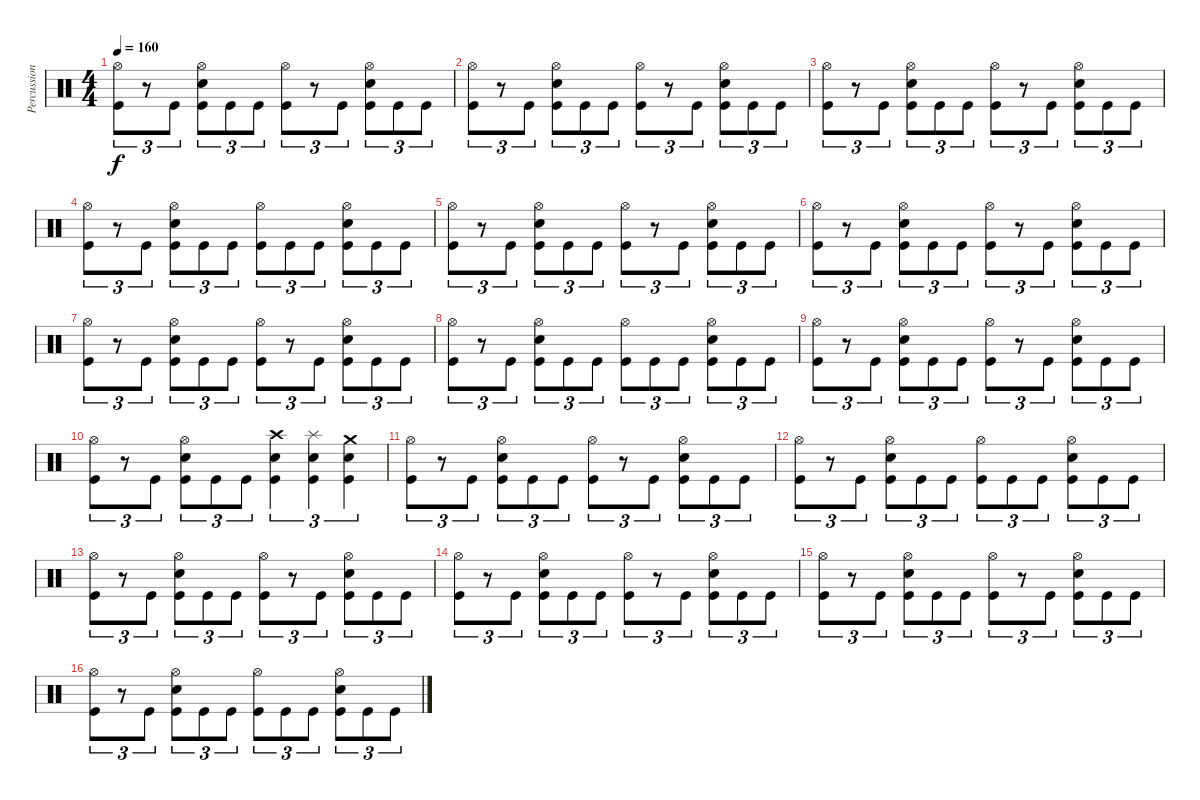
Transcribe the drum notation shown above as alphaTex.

\track ("Percussion" "Percussion") {instrument percussion}
\staff {score}
\articulation defaults
\ts (4 4)
\tempo 160
\clef neutral
\ks c
("Hi-Hat (open)" "Kick (hit)").8{tu (3 2) dy f} r.8{tu (3 2)} "Kick (hit)".8{tu (3 2)} ("Hi-Hat (open)" "Snare (hit) 2" "Kick (hit)").8{tu (3 2)} "Kick (hit)".8{tu (3 2)} "Kick (hit)".8{tu (3 2)} ("Hi-Hat (open)" "Kick (hit)").8{tu (3 2)} r.8{tu (3 2)} "Kick (hit)".8{tu (3 2)} ("Hi-Hat (open)" "Snare (hit) 2" "Kick (hit)").8{tu (3 2)} "Kick (hit)".8{tu (3 2)} "Kick (hit)".8{tu (3 2)} |
("Hi-Hat (open)" "Kick (hit)").8{tu (3 2)} r.8{tu (3 2)} "Kick (hit)".8{tu (3 2)} ("Hi-Hat (open)" "Snare (hit) 2" "Kick (hit)").8{tu (3 2)} "Kick (hit)".8{tu (3 2)} "Kick (hit)".8{tu (3 2)} ("Hi-Hat (open)" "Kick (hit)").8{tu (3 2)} r.8{tu (3 2)} "Kick (hit)".8{tu (3 2)} ("Hi-Hat (open)" "Snare (hit) 2" "Kick (hit)").8{tu (3 2)} "Kick (hit)".8{tu (3 2)} "Kick (hit)".8{tu (3 2)} |
("Hi-Hat (open)" "Kick (hit)").8{tu (3 2)} r.8{tu (3 2)} "Kick (hit)".8{tu (3 2)} ("Hi-Hat (open)" "Snare (hit) 2" "Kick (hit)").8{tu (3 2)} "Kick (hit)".8{tu (3 2)} "Kick (hit)".8{tu (3 2)} ("Hi-Hat (open)" "Kick (hit)").8{tu (3 2)} r.8{tu (3 2)} "Kick (hit)".8{tu (3 2)} ("Hi-Hat (open)" "Snare (hit) 2" "Kick (hit)").8{tu (3 2)} "Kick (hit)".8{tu (3 2)} "Kick (hit)".8{tu (3 2)} |
("Hi-Hat (open)" "Kick (hit)").8{tu (3 2)} r.8{tu (3 2)} "Kick (hit)".8{tu (3 2)} ("Hi-Hat (open)" "Snare (hit) 2" "Kick (hit)").8{tu (3 2)} "Kick (hit)".8{tu (3 2)} "Kick (hit)".8{tu (3 2)} ("Hi-Hat (open)" "Kick (hit)").8{tu (3 2)} "Kick (hit)".8{tu (3 2)} "Kick (hit)".8{tu (3 2)} ("Hi-Hat (open)" "Snare (hit) 2" "Kick (hit)").8{tu (3 2)} "Kick (hit)".8{tu (3 2)} "Kick (hit)".8{tu (3 2)} |
("Hi-Hat (open)" "Kick (hit)").8{tu (3 2)} r.8{tu (3 2)} "Kick (hit)".8{tu (3 2)} ("Hi-Hat (open)" "Snare (hit) 2" "Kick (hit)").8{tu (3 2)} "Kick (hit)".8{tu (3 2)} "Kick (hit)".8{tu (3 2)} ("Hi-Hat (open)" "Kick (hit)").8{tu (3 2)} r.8{tu (3 2)} "Kick (hit)".8{tu (3 2)} ("Hi-Hat (open)" "Snare (hit) 2" "Kick (hit)").8{tu (3 2)} "Kick (hit)".8{tu (3 2)} "Kick (hit)".8{tu (3 2)} |
("Hi-Hat (open)" "Kick (hit)").8{tu (3 2)} r.8{tu (3 2)} "Kick (hit)".8{tu (3 2)} ("Hi-Hat (open)" "Snare (hit) 2" "Kick (hit)").8{tu (3 2)} "Kick (hit)".8{tu (3 2)} "Kick (hit)".8{tu (3 2)} ("Hi-Hat (open)" "Kick (hit)").8{tu (3 2)} r.8{tu (3 2)} "Kick (hit)".8{tu (3 2)} ("Hi-Hat (open)" "Snare (hit) 2" "Kick (hit)").8{tu (3 2)} "Kick (hit)".8{tu (3 2)} "Kick (hit)".8{tu (3 2)} |
("Hi-Hat (open)" "Kick (hit)").8{tu (3 2)} r.8{tu (3 2)} "Kick (hit)".8{tu (3 2)} ("Hi-Hat (open)" "Snare (hit) 2" "Kick (hit)").8{tu (3 2)} "Kick (hit)".8{tu (3 2)} "Kick (hit)".8{tu (3 2)} ("Hi-Hat (open)" "Kick (hit)").8{tu (3 2)} r.8{tu (3 2)} "Kick (hit)".8{tu (3 2)} ("Hi-Hat (open)" "Snare (hit) 2" "Kick (hit)").8{tu (3 2)} "Kick (hit)".8{tu (3 2)} "Kick (hit)".8{tu (3 2)} |
("Hi-Hat (open)" "Kick (hit)").8{tu (3 2)} r.8{tu (3 2)} "Kick (hit)".8{tu (3 2)} ("Hi-Hat (open)" "Snare (hit) 2" "Kick (hit)").8{tu (3 2)} "Kick (hit)".8{tu (3 2)} "Kick (hit)".8{tu (3 2)} ("Hi-Hat (open)" "Kick (hit)").8{tu (3 2)} "Kick (hit)".8{tu (3 2)} "Kick (hit)".8{tu (3 2)} ("Hi-Hat (open)" "Snare (hit) 2" "Kick (hit)").8{tu (3 2)} "Kick (hit)".8{tu (3 2)} "Kick (hit)".8{tu (3 2)} |
("Hi-Hat (open)" "Kick (hit)").8{tu (3 2)} r.8{tu (3 2)} "Kick (hit)".8{tu (3 2)} ("Hi-Hat (open)" "Snare (hit) 2" "Kick (hit)").8{tu (3 2)} "Kick (hit)".8{tu (3 2)} "Kick (hit)".8{tu (3 2)} ("Hi-Hat (open)" "Kick (hit)").8{tu (3 2)} r.8{tu (3 2)} "Kick (hit)".8{tu (3 2)} ("Hi-Hat (open)" "Snare (hit) 2" "Kick (hit)").8{tu (3 2)} "Kick (hit)".8{tu (3 2)} "Kick (hit)".8{tu (3 2)} |
("Hi-Hat (open)" "Kick (hit)").8{tu (3 2)} r.8{tu (3 2)} "Kick (hit)".8{tu (3 2)} ("Hi-Hat (open)" "Snare (hit) 2" "Kick (hit)").8{tu (3 2)} "Kick (hit)".8{tu (3 2)} "Kick (hit)".8{tu (3 2)} ("Snare (hit) 2" "Crash high (hit)" "Kick (hit)").4{tu (3 2)} ("Snare (hit) 2" "Splash (hit)" "Kick (hit)").4{tu (3 2)} ("Snare (hit) 2" "Crash medium (hit)" "Kick (hit)").4{tu (3 2)} |
("Hi-Hat (open)" "Kick (hit)").8{tu (3 2)} r.8{tu (3 2)} "Kick (hit)".8{tu (3 2)} ("Hi-Hat (open)" "Snare (hit) 2" "Kick (hit)").8{tu (3 2)} "Kick (hit)".8{tu (3 2)} "Kick (hit)".8{tu (3 2)} ("Hi-Hat (open)" "Kick (hit)").8{tu (3 2)} r.8{tu (3 2)} "Kick (hit)".8{tu (3 2)} ("Hi-Hat (open)" "Snare (hit) 2" "Kick (hit)").8{tu (3 2)} "Kick (hit)".8{tu (3 2)} "Kick (hit)".8{tu (3 2)} |
("Hi-Hat (open)" "Kick (hit)").8{tu (3 2)} r.8{tu (3 2)} "Kick (hit)".8{tu (3 2)} ("Hi-Hat (open)" "Snare (hit) 2" "Kick (hit)").8{tu (3 2)} "Kick (hit)".8{tu (3 2)} "Kick (hit)".8{tu (3 2)} ("Hi-Hat (open)" "Kick (hit)").8{tu (3 2)} "Kick (hit)".8{tu (3 2)} "Kick (hit)".8{tu (3 2)} ("Hi-Hat (open)" "Snare (hit) 2" "Kick (hit)").8{tu (3 2)} "Kick (hit)".8{tu (3 2)} "Kick (hit)".8{tu (3 2)} |
("Hi-Hat (open)" "Kick (hit)").8{tu (3 2)} r.8{tu (3 2)} "Kick (hit)".8{tu (3 2)} ("Hi-Hat (open)" "Snare (hit) 2" "Kick (hit)").8{tu (3 2)} "Kick (hit)".8{tu (3 2)} "Kick (hit)".8{tu (3 2)} ("Hi-Hat (open)" "Kick (hit)").8{tu (3 2)} r.8{tu (3 2)} "Kick (hit)".8{tu (3 2)} ("Hi-Hat (open)" "Snare (hit) 2" "Kick (hit)").8{tu (3 2)} "Kick (hit)".8{tu (3 2)} "Kick (hit)".8{tu (3 2)} |
("Hi-Hat (open)" "Kick (hit)").8{tu (3 2)} r.8{tu (3 2)} "Kick (hit)".8{tu (3 2)} ("Hi-Hat (open)" "Snare (hit) 2" "Kick (hit)").8{tu (3 2)} "Kick (hit)".8{tu (3 2)} "Kick (hit)".8{tu (3 2)} ("Hi-Hat (open)" "Kick (hit)").8{tu (3 2)} r.8{tu (3 2)} "Kick (hit)".8{tu (3 2)} ("Hi-Hat (open)" "Snare (hit) 2" "Kick (hit)").8{tu (3 2)} "Kick (hit)".8{tu (3 2)} "Kick (hit)".8{tu (3 2)} |
("Hi-Hat (open)" "Kick (hit)").8{tu (3 2)} r.8{tu (3 2)} "Kick (hit)".8{tu (3 2)} ("Hi-Hat (open)" "Snare (hit) 2" "Kick (hit)").8{tu (3 2)} "Kick (hit)".8{tu (3 2)} "Kick (hit)".8{tu (3 2)} ("Hi-Hat (open)" "Kick (hit)").8{tu (3 2)} r.8{tu (3 2)} "Kick (hit)".8{tu (3 2)} ("Hi-Hat (open)" "Snare (hit) 2" "Kick (hit)").8{tu (3 2)} "Kick (hit)".8{tu (3 2)} "Kick (hit)".8{tu (3 2)} |
("Hi-Hat (open)" "Kick (hit)").8{tu (3 2)} r.8{tu (3 2)} "Kick (hit)".8{tu (3 2)} ("Hi-Hat (open)" "Snare (hit) 2" "Kick (hit)").8{tu (3 2)} "Kick (hit)".8{tu (3 2)} "Kick (hit)".8{tu (3 2)} ("Hi-Hat (open)" "Kick (hit)").8{tu (3 2)} "Kick (hit)".8{tu (3 2)} "Kick (hit)".8{tu (3 2)} ("Hi-Hat (open)" "Snare (hit) 2" "Kick (hit)").8{tu (3 2)} "Kick (hit)".8{tu (3 2)} "Kick (hit)".8{tu (3 2)}
